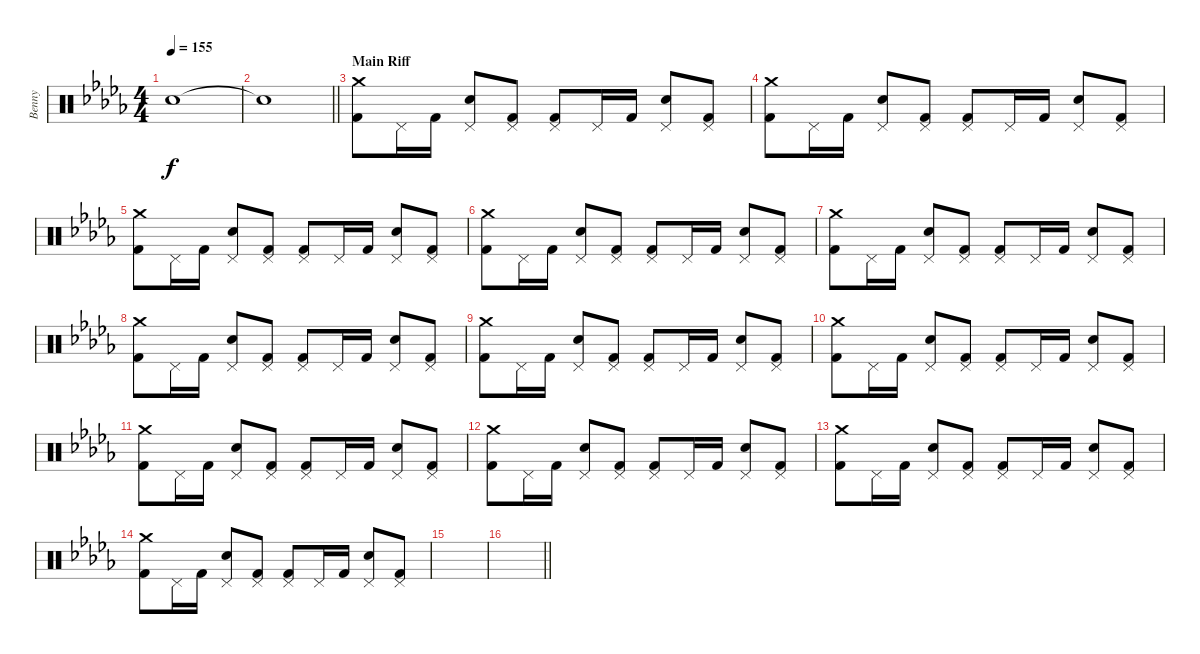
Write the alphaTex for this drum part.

\track ("Benny" "Benny") {instrument percussion}
\staff {score}
\articulation defaults
\ts (4 4)
\tempo 155
\clef neutral
\ks db "Snare (hit)"{t}.1{dy f}
|
\barLineRight lightlight "Snare (hit)"{t}.1
|
\section ("" "Main Riff")
("Crash medium (hit)" "Kick (hit) 2").8 "Pedal Hi-Hat (hit)".16 "Kick (hit) 2".16 ("Pedal Hi-Hat (hit)" "Snare (hit) 2").8 ("Pedal Hi-Hat (hit)" "Kick (hit) 2").8 ("Pedal Hi-Hat (hit)" "Kick (hit) 2").8 "Pedal Hi-Hat (hit)".16 "Kick (hit) 2".16 ("Pedal Hi-Hat (hit)" "Snare (hit) 2").8 ("Pedal Hi-Hat (hit)" "Kick (hit) 2").8 |
("Crash medium (hit)" "Kick (hit) 2").8 "Pedal Hi-Hat (hit)".16 "Kick (hit) 2".16 ("Pedal Hi-Hat (hit)" "Snare (hit) 2").8 ("Pedal Hi-Hat (hit)" "Kick (hit) 2").8 ("Pedal Hi-Hat (hit)" "Kick (hit) 2").8 "Pedal Hi-Hat (hit)".16 "Kick (hit) 2".16 ("Pedal Hi-Hat (hit)" "Snare (hit) 2").8 ("Pedal Hi-Hat (hit)" "Kick (hit) 2").8 |
("Crash medium (hit)" "Kick (hit) 2").8 "Pedal Hi-Hat (hit)".16 "Kick (hit) 2".16 ("Pedal Hi-Hat (hit)" "Snare (hit) 2").8 ("Pedal Hi-Hat (hit)" "Kick (hit) 2").8 ("Pedal Hi-Hat (hit)" "Kick (hit) 2").8 "Pedal Hi-Hat (hit)".16 "Kick (hit) 2".16 ("Pedal Hi-Hat (hit)" "Snare (hit) 2").8 ("Pedal Hi-Hat (hit)" "Kick (hit) 2").8 |
("Crash medium (hit)" "Kick (hit) 2").8 "Pedal Hi-Hat (hit)".16 "Kick (hit) 2".16 ("Pedal Hi-Hat (hit)" "Snare (hit) 2").8 ("Pedal Hi-Hat (hit)" "Kick (hit) 2").8 ("Pedal Hi-Hat (hit)" "Kick (hit) 2").8 "Pedal Hi-Hat (hit)".16 "Kick (hit) 2".16 ("Pedal Hi-Hat (hit)" "Snare (hit) 2").8 ("Pedal Hi-Hat (hit)" "Kick (hit) 2").8 |
("Crash medium (hit)" "Kick (hit) 2").8 "Pedal Hi-Hat (hit)".16 "Kick (hit) 2".16 ("Pedal Hi-Hat (hit)" "Snare (hit) 2").8 ("Pedal Hi-Hat (hit)" "Kick (hit) 2").8 ("Pedal Hi-Hat (hit)" "Kick (hit) 2").8 "Pedal Hi-Hat (hit)".16 "Kick (hit) 2".16 ("Pedal Hi-Hat (hit)" "Snare (hit) 2").8 ("Pedal Hi-Hat (hit)" "Kick (hit) 2").8 |
("Crash medium (hit)" "Kick (hit) 2").8 "Pedal Hi-Hat (hit)".16 "Kick (hit) 2".16 ("Pedal Hi-Hat (hit)" "Snare (hit) 2").8 ("Pedal Hi-Hat (hit)" "Kick (hit) 2").8 ("Pedal Hi-Hat (hit)" "Kick (hit) 2").8 "Pedal Hi-Hat (hit)".16 "Kick (hit) 2".16 ("Pedal Hi-Hat (hit)" "Snare (hit) 2").8 ("Pedal Hi-Hat (hit)" "Kick (hit) 2").8 |
("Crash medium (hit)" "Kick (hit) 2").8 "Pedal Hi-Hat (hit)".16 "Kick (hit) 2".16 ("Pedal Hi-Hat (hit)" "Snare (hit) 2").8 ("Pedal Hi-Hat (hit)" "Kick (hit) 2").8 ("Pedal Hi-Hat (hit)" "Kick (hit) 2").8 "Pedal Hi-Hat (hit)".16 "Kick (hit) 2".16 ("Pedal Hi-Hat (hit)" "Snare (hit) 2").8 ("Pedal Hi-Hat (hit)" "Kick (hit) 2").8 |
("Crash medium (hit)" "Kick (hit) 2").8 "Pedal Hi-Hat (hit)".16 "Kick (hit) 2".16 ("Pedal Hi-Hat (hit)" "Snare (hit) 2").8 ("Pedal Hi-Hat (hit)" "Kick (hit) 2").8 ("Pedal Hi-Hat (hit)" "Kick (hit) 2").8 "Pedal Hi-Hat (hit)".16 "Kick (hit) 2".16 ("Pedal Hi-Hat (hit)" "Snare (hit) 2").8 ("Pedal Hi-Hat (hit)" "Kick (hit) 2").8 |
("Crash medium (hit)" "Kick (hit) 2").8 "Pedal Hi-Hat (hit)".16 "Kick (hit) 2".16 ("Pedal Hi-Hat (hit)" "Snare (hit) 2").8 ("Pedal Hi-Hat (hit)" "Kick (hit) 2").8 ("Pedal Hi-Hat (hit)" "Kick (hit) 2").8 "Pedal Hi-Hat (hit)".16 "Kick (hit) 2".16 ("Pedal Hi-Hat (hit)" "Snare (hit) 2").8 ("Pedal Hi-Hat (hit)" "Kick (hit) 2").8 |
("Crash medium (hit)" "Kick (hit) 2").8 "Pedal Hi-Hat (hit)".16 "Kick (hit) 2".16 ("Pedal Hi-Hat (hit)" "Snare (hit) 2").8 ("Pedal Hi-Hat (hit)" "Kick (hit) 2").8 ("Pedal Hi-Hat (hit)" "Kick (hit) 2").8 "Pedal Hi-Hat (hit)".16 "Kick (hit) 2".16 ("Pedal Hi-Hat (hit)" "Snare (hit) 2").8 ("Pedal Hi-Hat (hit)" "Kick (hit) 2").8 |
("Crash medium (hit)" "Kick (hit) 2").8 "Pedal Hi-Hat (hit)".16 "Kick (hit) 2".16 ("Pedal Hi-Hat (hit)" "Snare (hit) 2").8 ("Pedal Hi-Hat (hit)" "Kick (hit) 2").8 ("Pedal Hi-Hat (hit)" "Kick (hit) 2").8 "Pedal Hi-Hat (hit)".16 "Kick (hit) 2".16 ("Pedal Hi-Hat (hit)" "Snare (hit) 2").8 ("Pedal Hi-Hat (hit)" "Kick (hit) 2").8 |
("Crash medium (hit)" "Kick (hit) 2").8 "Pedal Hi-Hat (hit)".16 "Kick (hit) 2".16 ("Pedal Hi-Hat (hit)" "Snare (hit) 2").8 ("Pedal Hi-Hat (hit)" "Kick (hit) 2").8 ("Pedal Hi-Hat (hit)" "Kick (hit) 2").8 "Pedal Hi-Hat (hit)".16 "Kick (hit) 2".16 ("Pedal Hi-Hat (hit)" "Snare (hit) 2").8 ("Pedal Hi-Hat (hit)" "Kick (hit) 2").8 |
|
\barLineRight lightlight
